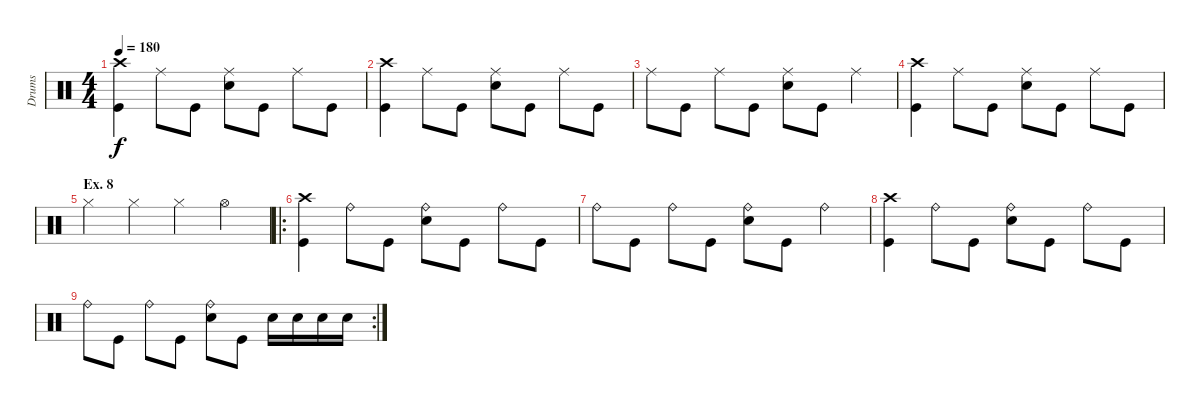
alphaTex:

\track ("Drums" "Drums") {instrument percussion}
\staff {score}
\articulation defaults
\ts (4 4)
\tempo 180
\clef neutral
\ks c
("Crash high (hit)" "Kick (hit)").4{dy f} "Ride (middle)".8 "Kick (hit)".8 ("Ride (middle)" "Snare (hit) 2").8 "Kick (hit)".8 "Ride (middle)".8 "Kick (hit)".8 |
("Crash high (hit)" "Kick (hit)").4 "Ride (middle)".8 "Kick (hit)".8 ("Ride (middle)" "Snare (hit) 2").8 "Kick (hit)".8 "Ride (middle)".8 "Kick (hit)".8 |
"Ride (middle)".8 "Kick (hit)".8 "Ride (middle)".8 "Kick (hit)".8 ("Ride (middle)" "Snare (hit) 2").8 "Kick (hit)".8 "Ride (middle)".4 |
("Crash high (hit)" "Kick (hit)").4 "Ride (middle)".8 "Kick (hit)".8 ("Ride (middle)" "Snare (hit) 2").8 "Kick (hit)".8 "Ride (middle)".8 "Kick (hit)".8 |
\section ("" "Ex. 8")
"Hi-Hat (closed)".4 "Hi-Hat (closed)".4 "Hi-Hat (closed)".4 "Hi-Hat (open)".4 |
\ro
("Crash high (hit)" "Kick (hit)").4 "Ride (bell)".8 "Kick (hit)".8 ("Ride (bell)" "Snare (hit) 2").8 "Kick (hit)".8 "Ride (bell)".8 "Kick (hit)".8 |
"Ride (bell)".8 "Kick (hit)".8 "Ride (bell)".8 "Kick (hit)".8 ("Ride (bell)" "Snare (hit) 2").8 "Kick (hit)".8 "Ride (bell)".4 |
("Crash high (hit)" "Kick (hit)").4 "Ride (bell)".8 "Kick (hit)".8 ("Ride (bell)" "Snare (hit) 2").8 "Kick (hit)".8 "Ride (bell)".8 "Kick (hit)".8 |
\rc 2 "Ride (bell)".8 "Kick (hit)".8 "Ride (bell)".8 "Kick (hit)".8
("Ride (bell)" "Snare (hit) 2").8 "Kick (hit)".8 "Snare (hit) 2".16 "Snare (hit) 2".16 "Snare (hit) 2".16 "Snare (hit) 2".16
